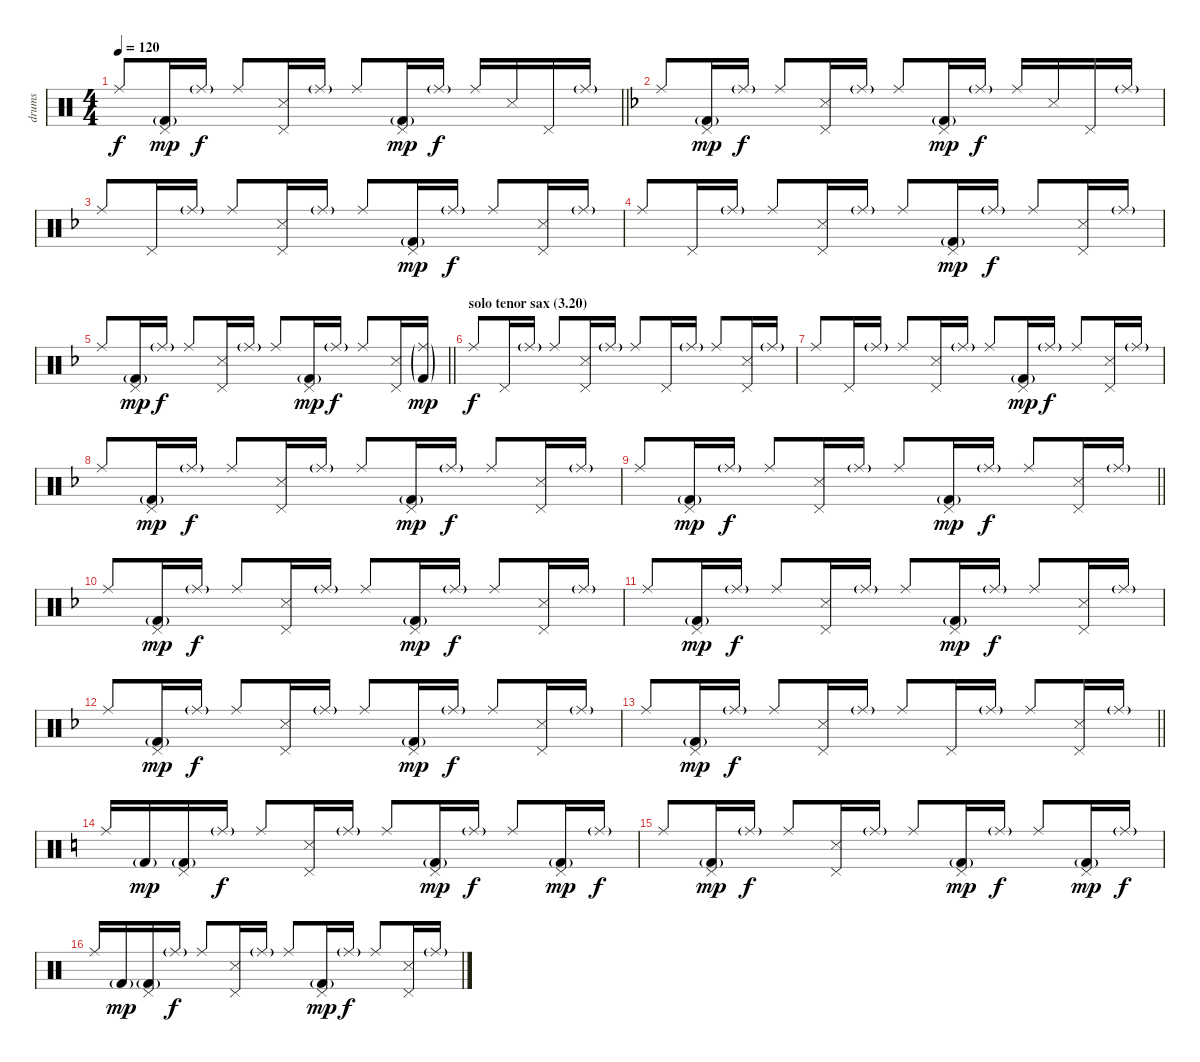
\track ("drums" "drums") {instrument percussion}
\staff {score}
\articulation defaults
\ts (4 4)
\tempo 120
\clef neutral
\barLineRight lightlight
\ks c "Ride (middle)".8{dy f}
("Pedal Hi-Hat (hit)" "Kick (hit) 2"{g}).16{dy mp} "Ride (middle)"{g}.16{dy f} "Ride (middle)".8 ("Pedal Hi-Hat (hit)" "Snare (side stick) 3").16 "Ride (middle)"{g}.16 "Ride (middle)".8 ("Pedal Hi-Hat (hit)" "Kick (hit) 2"{g}).16{dy mp} "Ride (middle)"{g}.16{dy f} "Ride (middle)".16 "Snare (side stick) 3".16 "Pedal Hi-Hat (hit)".16 "Ride (middle)"{g}.16 |
\ks f "Ride (middle)".8
("Pedal Hi-Hat (hit)" "Kick (hit) 2"{g}).16{dy mp} "Ride (middle)"{g}.16{dy f} "Ride (middle)".8 ("Pedal Hi-Hat (hit)" "Snare (side stick) 3").16 "Ride (middle)"{g}.16 "Ride (middle)".8 ("Pedal Hi-Hat (hit)" "Kick (hit) 2"{g}).16{dy mp} "Ride (middle)"{g}.16{dy f} "Ride (middle)".16 "Snare (side stick) 3".16 "Pedal Hi-Hat (hit)".16 "Ride (middle)"{g}.16 |
"Ride (middle)".8 "Pedal Hi-Hat (hit)".16 "Ride (middle)"{g}.16 "Ride (middle)".8 ("Pedal Hi-Hat (hit)" "Snare (side stick) 3").16 "Ride (middle)"{g}.16 "Ride (middle)".8 ("Pedal Hi-Hat (hit)" "Kick (hit) 2"{g}).16{dy mp} "Ride (middle)"{g}.16{dy f} "Ride (middle)".8 ("Pedal Hi-Hat (hit)" "Snare (side stick) 3").16 "Ride (middle)"{g}.16 |
"Ride (middle)".8 "Pedal Hi-Hat (hit)".16 "Ride (middle)"{g}.16 "Ride (middle)".8 ("Pedal Hi-Hat (hit)" "Snare (side stick) 3").16 "Ride (middle)"{g}.16 "Ride (middle)".8 ("Pedal Hi-Hat (hit)" "Kick (hit) 2"{g}).16{dy mp} "Ride (middle)"{g}.16{dy f} "Ride (middle)".8 ("Pedal Hi-Hat (hit)" "Snare (side stick) 3").16 "Ride (middle)"{g}.16 |
\barLineRight lightlight "Ride (middle)".8
("Pedal Hi-Hat (hit)" "Kick (hit) 2"{g}).16{dy mp} "Ride (middle)"{g}.16{dy f} "Ride (middle)".8 ("Pedal Hi-Hat (hit)" "Snare (side stick) 3").16 "Ride (middle)"{g}.16 "Ride (middle)".8 ("Pedal Hi-Hat (hit)" "Kick (hit) 2"{g}).16{dy mp} "Ride (middle)"{g}.16{dy f} "Ride (middle)".8 ("Pedal Hi-Hat (hit)" "Snare (side stick) 3").16 ("Ride (middle)"{g} "Kick (hit) 2"{g}).16{dy mp} |
\section ("" "solo tenor sax (3.20)")
"Ride (middle)".8{dy f} "Pedal Hi-Hat (hit)".16 "Ride (middle)"{g}.16 "Ride (middle)".8 ("Pedal Hi-Hat (hit)" "Snare (side stick) 3").16 "Ride (middle)"{g}.16 "Ride (middle)".8 "Pedal Hi-Hat (hit)".16 "Ride (middle)"{g}.16 "Ride (middle)".8 ("Pedal Hi-Hat (hit)" "Snare (side stick) 3").16 "Ride (middle)"{g}.16 |
"Ride (middle)".8 "Pedal Hi-Hat (hit)".16 "Ride (middle)"{g}.16 "Ride (middle)".8 ("Pedal Hi-Hat (hit)" "Snare (side stick) 3").16 "Ride (middle)"{g}.16 "Ride (middle)".8 ("Pedal Hi-Hat (hit)" "Kick (hit) 2"{g}).16{dy mp} "Ride (middle)"{g}.16{dy f} "Ride (middle)".8 ("Pedal Hi-Hat (hit)" "Snare (side stick) 3").16 "Ride (middle)"{g}.16 |
"Ride (middle)".8 ("Pedal Hi-Hat (hit)" "Kick (hit) 2"{g}).16{dy mp} "Ride (middle)"{g}.16{dy f} "Ride (middle)".8 ("Pedal Hi-Hat (hit)" "Snare (side stick) 3").16 "Ride (middle)"{g}.16 "Ride (middle)".8 ("Pedal Hi-Hat (hit)" "Kick (hit) 2"{g}).16{dy mp} "Ride (middle)"{g}.16{dy f} "Ride (middle)".8 ("Pedal Hi-Hat (hit)" "Snare (side stick) 3").16 "Ride (middle)"{g}.16 |
\barLineRight lightlight "Ride (middle)".8
("Pedal Hi-Hat (hit)" "Kick (hit) 2"{g}).16{dy mp} "Ride (middle)"{g}.16{dy f} "Ride (middle)".8 ("Pedal Hi-Hat (hit)" "Snare (side stick) 3").16 "Ride (middle)"{g}.16 "Ride (middle)".8 ("Pedal Hi-Hat (hit)" "Kick (hit) 2"{g}).16{dy mp} "Ride (middle)"{g}.16{dy f} "Ride (middle)".8 ("Pedal Hi-Hat (hit)" "Snare (side stick) 3").16 "Ride (middle)"{g}.16 |
"Ride (middle)".8 ("Pedal Hi-Hat (hit)" "Kick (hit) 2"{g}).16{dy mp} "Ride (middle)"{g}.16{dy f} "Ride (middle)".8 ("Pedal Hi-Hat (hit)" "Snare (side stick) 3").16 "Ride (middle)"{g}.16 "Ride (middle)".8 ("Pedal Hi-Hat (hit)" "Kick (hit) 2"{g}).16{dy mp} "Ride (middle)"{g}.16{dy f} "Ride (middle)".8 ("Pedal Hi-Hat (hit)" "Snare (side stick) 3").16 "Ride (middle)"{g}.16 |
"Ride (middle)".8 ("Pedal Hi-Hat (hit)" "Kick (hit) 2"{g}).16{dy mp} "Ride (middle)"{g}.16{dy f} "Ride (middle)".8 ("Pedal Hi-Hat (hit)" "Snare (side stick) 3").16 "Ride (middle)"{g}.16 "Ride (middle)".8 ("Pedal Hi-Hat (hit)" "Kick (hit) 2"{g}).16{dy mp} "Ride (middle)"{g}.16{dy f} "Ride (middle)".8 ("Pedal Hi-Hat (hit)" "Snare (side stick) 3").16 "Ride (middle)"{g}.16 |
"Ride (middle)".8 ("Pedal Hi-Hat (hit)" "Kick (hit) 2"{g}).16{dy mp} "Ride (middle)"{g}.16{dy f} "Ride (middle)".8 ("Pedal Hi-Hat (hit)" "Snare (side stick) 3").16 "Ride (middle)"{g}.16 "Ride (middle)".8 ("Pedal Hi-Hat (hit)" "Kick (hit) 2"{g}).16{dy mp} "Ride (middle)"{g}.16{dy f} "Ride (middle)".8 ("Pedal Hi-Hat (hit)" "Snare (side stick) 3").16 "Ride (middle)"{g}.16 |
\barLineRight lightlight "Ride (middle)".8
("Pedal Hi-Hat (hit)" "Kick (hit) 2"{g}).16{dy mp} "Ride (middle)"{g}.16{dy f} "Ride (middle)".8 ("Pedal Hi-Hat (hit)" "Snare (side stick) 3").16 "Ride (middle)"{g}.16 "Ride (middle)".8 "Pedal Hi-Hat (hit)".16 "Ride (middle)"{g}.16 "Ride (middle)".8 ("Pedal Hi-Hat (hit)" "Snare (side stick) 3").16 "Ride (middle)"{g}.16 |
\ks c "Ride (middle)".16 "Kick (hit) 2"{g}.16{dy mp}
("Pedal Hi-Hat (hit)" "Kick (hit) 2"{g}).16 "Ride (middle)"{g}.16{dy f} "Ride (middle)".8 ("Pedal Hi-Hat (hit)" "Snare (side stick) 3").16 "Ride (middle)"{g}.16 "Ride (middle)".8 ("Pedal Hi-Hat (hit)" "Kick (hit) 2"{g}).16{dy mp} "Ride (middle)"{g}.16{dy f} "Ride (middle)".8 ("Pedal Hi-Hat (hit)" "Kick (hit) 2"{g}).16{dy mp} "Ride (middle)"{g}.16{dy f} |
"Ride (middle)".8 ("Pedal Hi-Hat (hit)" "Kick (hit) 2"{g}).16{dy mp} "Ride (middle)"{g}.16{dy f} "Ride (middle)".8 ("Pedal Hi-Hat (hit)" "Snare (side stick) 3").16 "Ride (middle)"{g}.16 "Ride (middle)".8 ("Pedal Hi-Hat (hit)" "Kick (hit) 2"{g}).16{dy mp} "Ride (middle)"{g}.16{dy f} "Ride (middle)".8 ("Pedal Hi-Hat (hit)" "Kick (hit) 2"{g}).16{dy mp} "Ride (middle)"{g}.16{dy f} |
"Ride (middle)".16 "Kick (hit) 2"{g}.16{dy mp} ("Pedal Hi-Hat (hit)" "Kick (hit) 2"{g}).16 "Ride (middle)"{g}.16{dy f} "Ride (middle)".8 ("Pedal Hi-Hat (hit)" "Snare (side stick) 3").16 "Ride (middle)"{g}.16 "Ride (middle)".8 ("Pedal Hi-Hat (hit)" "Kick (hit) 2"{g}).16{dy mp} "Ride (middle)"{g}.16{dy f} "Ride (middle)".8 ("Pedal Hi-Hat (hit)" "Snare (side stick) 3").16 "Ride (middle)"{g}.16
